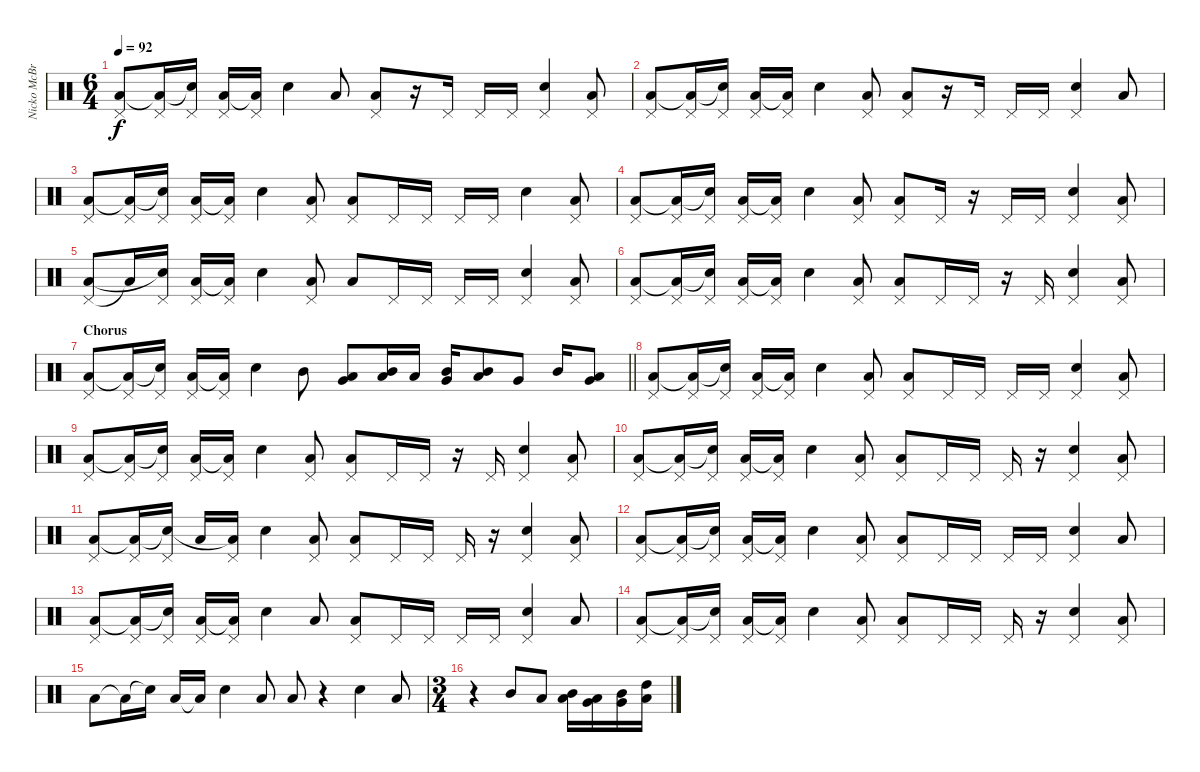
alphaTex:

\track ("Nicko McBrain" "Nicko McBr") {instrument percussion}
\staff {score}
\articulation defaults
\ts (6 4)
\tempo 92
\clef neutral
\ks c
("Pedal Hi-Hat (hit)" "Low Floor Tom (hit)").8{dy f} ("Pedal Hi-Hat (hit)" "Low Floor Tom (hit)"{t}).16 ("Pedal Hi-Hat (hit)" "Electric Snare (hit)"{t}).16 ("Pedal Hi-Hat (hit)" "Low Floor Tom (hit)").16 ("Pedal Hi-Hat (hit)" "Low Floor Tom (hit)"{t}).16 "Electric Snare (hit)".4 "Low Floor Tom (hit)".8 ("Pedal Hi-Hat (hit)" "Low Floor Tom (hit)").8 r.16 "Pedal Hi-Hat (hit)".16 "Pedal Hi-Hat (hit)".16 "Pedal Hi-Hat (hit)".16 ("Pedal Hi-Hat (hit)" "Electric Snare (hit)").4 ("Pedal Hi-Hat (hit)" "Low Floor Tom (hit)").8 |
("Pedal Hi-Hat (hit)" "Low Floor Tom (hit)").8 ("Pedal Hi-Hat (hit)" "Low Floor Tom (hit)"{t}).16 ("Pedal Hi-Hat (hit)" "Electric Snare (hit)"{t}).16 ("Pedal Hi-Hat (hit)" "Low Floor Tom (hit)").16 ("Pedal Hi-Hat (hit)" "Low Floor Tom (hit)"{t}).16 "Electric Snare (hit)".4 ("Pedal Hi-Hat (hit)" "Low Floor Tom (hit)").8 ("Pedal Hi-Hat (hit)" "Low Floor Tom (hit)").8 r.16 "Pedal Hi-Hat (hit)".16 "Pedal Hi-Hat (hit)".16 "Pedal Hi-Hat (hit)".16 ("Pedal Hi-Hat (hit)" "Electric Snare (hit)").4 "Low Floor Tom (hit)".8 |
("Pedal Hi-Hat (hit)" "Low Floor Tom (hit)").8 ("Pedal Hi-Hat (hit)" "Low Floor Tom (hit)"{t}).16 ("Pedal Hi-Hat (hit)" "Electric Snare (hit)"{t}).16 ("Pedal Hi-Hat (hit)" "Low Floor Tom (hit)").16 ("Pedal Hi-Hat (hit)" "Low Floor Tom (hit)"{t}).16 "Electric Snare (hit)".4 ("Pedal Hi-Hat (hit)" "Low Floor Tom (hit)").8 ("Pedal Hi-Hat (hit)" "Low Floor Tom (hit)").8 "Pedal Hi-Hat (hit)".16 "Pedal Hi-Hat (hit)".16 "Pedal Hi-Hat (hit)".16 "Pedal Hi-Hat (hit)".16 "Electric Snare (hit)".4 ("Pedal Hi-Hat (hit)" "Low Floor Tom (hit)").8 |
("Pedal Hi-Hat (hit)" "Low Floor Tom (hit)").8 ("Pedal Hi-Hat (hit)" "Low Floor Tom (hit)"{t}).16 ("Pedal Hi-Hat (hit)" "Electric Snare (hit)"{t}).16 ("Pedal Hi-Hat (hit)" "Low Floor Tom (hit)").16 ("Pedal Hi-Hat (hit)" "Low Floor Tom (hit)"{t}).16 "Electric Snare (hit)".4 ("Pedal Hi-Hat (hit)" "Low Floor Tom (hit)").8 ("Pedal Hi-Hat (hit)" "Low Floor Tom (hit)").8 "Pedal Hi-Hat (hit)".16 r.16 "Pedal Hi-Hat (hit)".16 "Pedal Hi-Hat (hit)".16 ("Pedal Hi-Hat (hit)" "Electric Snare (hit)").4 ("Pedal Hi-Hat (hit)" "Low Floor Tom (hit)").8 |
("Pedal Hi-Hat (hit)" "Low Floor Tom (hit)").8 "Low Floor Tom (hit)"{t}.16 ("Pedal Hi-Hat (hit)" "Electric Snare (hit)"{t}).16 ("Pedal Hi-Hat (hit)" "Low Floor Tom (hit)").16 ("Pedal Hi-Hat (hit)" "Low Floor Tom (hit)"{t}).16 "Electric Snare (hit)".4 ("Pedal Hi-Hat (hit)" "Low Floor Tom (hit)").8 "Low Floor Tom (hit)".8 "Pedal Hi-Hat (hit)".16 "Pedal Hi-Hat (hit)".16 "Pedal Hi-Hat (hit)".16 "Pedal Hi-Hat (hit)".16 ("Pedal Hi-Hat (hit)" "Electric Snare (hit)").4 ("Pedal Hi-Hat (hit)" "Low Floor Tom (hit)").8 |
("Pedal Hi-Hat (hit)" "Low Floor Tom (hit)").8 ("Pedal Hi-Hat (hit)" "Low Floor Tom (hit)"{t}).16 ("Pedal Hi-Hat (hit)" "Electric Snare (hit)"{t}).16 ("Pedal Hi-Hat (hit)" "Low Floor Tom (hit)").16 ("Pedal Hi-Hat (hit)" "Low Floor Tom (hit)"{t}).16 "Electric Snare (hit)".4 ("Pedal Hi-Hat (hit)" "Low Floor Tom (hit)").8 ("Pedal Hi-Hat (hit)" "Low Floor Tom (hit)").8 "Pedal Hi-Hat (hit)".16 "Pedal Hi-Hat (hit)".16 r.16 "Pedal Hi-Hat (hit)".16 ("Pedal Hi-Hat (hit)" "Electric Snare (hit)").4 ("Pedal Hi-Hat (hit)" "Low Floor Tom (hit)").8 |
\section ("" "Chorus")
\barLineRight lightlight
("Pedal Hi-Hat (hit)" "Low Floor Tom (hit)").8 ("Pedal Hi-Hat (hit)" "Low Floor Tom (hit)"{t}).16 ("Pedal Hi-Hat (hit)" "Electric Snare (hit)"{t}).16 ("Pedal Hi-Hat (hit)" "Low Floor Tom (hit)").16 ("Pedal Hi-Hat (hit)" "Low Floor Tom (hit)"{t}).16 "Electric Snare (hit)".4 "Mid Tom (hit)".8 ("Very Low Tom (hit)" "Low Tom (hit)").8 ("Mid Tom (hit)" "Low Tom (hit)").16 "Low Tom (hit)".16 ("Very Low Tom (hit)" "Mid Tom (hit)").16 ("Mid Tom (hit)" "Low Tom (hit)").8 "Very Low Tom (hit)".8 "Mid Tom (hit)".16 ("Very Low Tom (hit)" "Low Tom (hit)").8 |
("Pedal Hi-Hat (hit)" "Low Floor Tom (hit)").8 ("Pedal Hi-Hat (hit)" "Low Floor Tom (hit)"{t}).16 ("Pedal Hi-Hat (hit)" "Electric Snare (hit)"{t}).16 ("Pedal Hi-Hat (hit)" "Low Floor Tom (hit)").16 ("Pedal Hi-Hat (hit)" "Low Floor Tom (hit)"{t}).16 "Electric Snare (hit)".4 ("Pedal Hi-Hat (hit)" "Low Floor Tom (hit)").8 ("Pedal Hi-Hat (hit)" "Low Floor Tom (hit)").8 "Pedal Hi-Hat (hit)".16 "Pedal Hi-Hat (hit)".16 "Pedal Hi-Hat (hit)".16 "Pedal Hi-Hat (hit)".16 ("Pedal Hi-Hat (hit)" "Electric Snare (hit)").4 ("Pedal Hi-Hat (hit)" "Low Floor Tom (hit)").8 |
("Pedal Hi-Hat (hit)" "Low Floor Tom (hit)").8 ("Pedal Hi-Hat (hit)" "Low Floor Tom (hit)"{t}).16 ("Pedal Hi-Hat (hit)" "Electric Snare (hit)"{t}).16 ("Pedal Hi-Hat (hit)" "Low Floor Tom (hit)").16 ("Pedal Hi-Hat (hit)" "Low Floor Tom (hit)"{t}).16 "Electric Snare (hit)".4 ("Pedal Hi-Hat (hit)" "Low Floor Tom (hit)").8 ("Pedal Hi-Hat (hit)" "Low Floor Tom (hit)").8 "Pedal Hi-Hat (hit)".16 "Pedal Hi-Hat (hit)".16 r.16 "Pedal Hi-Hat (hit)".16 ("Pedal Hi-Hat (hit)" "Electric Snare (hit)").4 ("Pedal Hi-Hat (hit)" "Low Floor Tom (hit)").8 |
("Pedal Hi-Hat (hit)" "Low Floor Tom (hit)").8 ("Pedal Hi-Hat (hit)" "Low Floor Tom (hit)"{t}).16 ("Pedal Hi-Hat (hit)" "Electric Snare (hit)"{t}).16 ("Pedal Hi-Hat (hit)" "Low Floor Tom (hit)").16 ("Pedal Hi-Hat (hit)" "Low Floor Tom (hit)"{t}).16 "Electric Snare (hit)".4 ("Pedal Hi-Hat (hit)" "Low Floor Tom (hit)").8 ("Pedal Hi-Hat (hit)" "Low Floor Tom (hit)").8 "Pedal Hi-Hat (hit)".16 "Pedal Hi-Hat (hit)".16 "Pedal Hi-Hat (hit)".16 r.16 ("Pedal Hi-Hat (hit)" "Electric Snare (hit)").4 ("Pedal Hi-Hat (hit)" "Low Floor Tom (hit)").8 |
("Pedal Hi-Hat (hit)" "Low Floor Tom (hit)").8 ("Pedal Hi-Hat (hit)" "Low Floor Tom (hit)"{t}).16 ("Pedal Hi-Hat (hit)" "Electric Snare (hit)"{t}).16 "Low Floor Tom (hit)".16 ("Pedal Hi-Hat (hit)" "Low Floor Tom (hit)"{t}).16 "Electric Snare (hit)".4 ("Pedal Hi-Hat (hit)" "Low Floor Tom (hit)").8 ("Pedal Hi-Hat (hit)" "Low Floor Tom (hit)").8 "Pedal Hi-Hat (hit)".16 "Pedal Hi-Hat (hit)".16 "Pedal Hi-Hat (hit)".16 r.16 ("Pedal Hi-Hat (hit)" "Electric Snare (hit)").4 ("Pedal Hi-Hat (hit)" "Low Floor Tom (hit)").8 |
("Pedal Hi-Hat (hit)" "Low Floor Tom (hit)").8 ("Pedal Hi-Hat (hit)" "Low Floor Tom (hit)"{t}).16 ("Pedal Hi-Hat (hit)" "Electric Snare (hit)"{t}).16 ("Pedal Hi-Hat (hit)" "Low Floor Tom (hit)").16 ("Pedal Hi-Hat (hit)" "Low Floor Tom (hit)"{t}).16 "Electric Snare (hit)".4 ("Pedal Hi-Hat (hit)" "Low Floor Tom (hit)").8 ("Pedal Hi-Hat (hit)" "Low Floor Tom (hit)").8 "Pedal Hi-Hat (hit)".16 "Pedal Hi-Hat (hit)".16 "Pedal Hi-Hat (hit)".16 "Pedal Hi-Hat (hit)".16 ("Pedal Hi-Hat (hit)" "Electric Snare (hit)").4 "Low Floor Tom (hit)".8 |
("Pedal Hi-Hat (hit)" "Low Floor Tom (hit)").8 ("Pedal Hi-Hat (hit)" "Low Floor Tom (hit)"{t}).16 ("Pedal Hi-Hat (hit)" "Electric Snare (hit)"{t}).16 ("Pedal Hi-Hat (hit)" "Low Floor Tom (hit)").16 ("Pedal Hi-Hat (hit)" "Low Floor Tom (hit)"{t}).16 "Electric Snare (hit)".4 "Low Floor Tom (hit)".8 ("Pedal Hi-Hat (hit)" "Low Floor Tom (hit)").8 "Pedal Hi-Hat (hit)".16 "Pedal Hi-Hat (hit)".16 "Pedal Hi-Hat (hit)".16 "Pedal Hi-Hat (hit)".16 ("Pedal Hi-Hat (hit)" "Electric Snare (hit)").4 "Low Floor Tom (hit)".8 |
("Pedal Hi-Hat (hit)" "Low Floor Tom (hit)").8 ("Pedal Hi-Hat (hit)" "Low Floor Tom (hit)"{t}).16 ("Pedal Hi-Hat (hit)" "Electric Snare (hit)"{t}).16 ("Pedal Hi-Hat (hit)" "Low Floor Tom (hit)").16 ("Pedal Hi-Hat (hit)" "Low Floor Tom (hit)"{t}).16 "Electric Snare (hit)".4 ("Pedal Hi-Hat (hit)" "Low Floor Tom (hit)").8 ("Pedal Hi-Hat (hit)" "Low Floor Tom (hit)").8 "Pedal Hi-Hat (hit)".16 "Pedal Hi-Hat (hit)".16 "Pedal Hi-Hat (hit)".16 r.16 ("Pedal Hi-Hat (hit)" "Electric Snare (hit)").4 ("Pedal Hi-Hat (hit)" "Low Floor Tom (hit)").8 |
"Low Floor Tom (hit)".8 "Low Floor Tom (hit)"{t}.16 "Electric Snare (hit)"{t}.16 "Low Floor Tom (hit)".16 "Low Floor Tom (hit)"{t}.16 "Electric Snare (hit)".4 "Low Floor Tom (hit)".8 "Low Floor Tom (hit)".8 r.4 "Electric Snare (hit)".4 "Low Floor Tom (hit)".8 |
\ts (3 4)
r.4 "Mid Tom (hit)".8 "Low Tom (hit)".8 ("Mid Tom (hit)" "Low Tom (hit)").16 ("Low Tom (hit)" "Very Low Tom (hit)").16 ("Very Low Tom (hit)" "Mid Tom (hit)").16 ("High Tom (hit)" "Low Floor Tom (hit)").16
